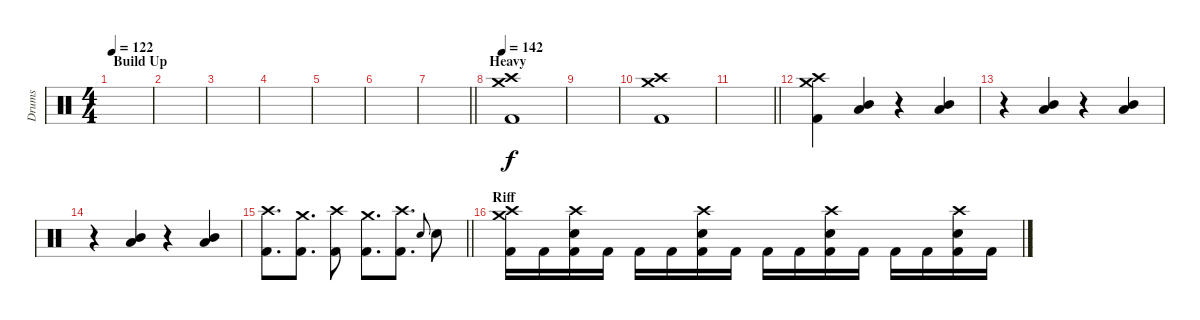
\track ("Drums" "Drums") {instrument percussion}
\staff {score}
\articulation defaults
\ts (4 4)
\section ("" "Build Up")
\tempo 122
\clef neutral
\ks c
|
|
|
|
|
|
\barLineRight lightlight
|
\section ("" "Heavy")
\tempo 142
("Crash high (hit)" "Crash medium (hit)" "Kick (hit) 2").1 |
|
("Crash high (hit)" "Crash medium (hit)" "Kick (hit) 2").1 |
\barLineRight lightlight
|
("Crash high (hit)" "Crash medium (hit)" "Kick (hit) 2").4 ("Mid Tom (hit)" "Low Floor Tom (hit)").4 r.4 ("Mid Tom (hit)" "Low Floor Tom (hit)").4 |
r.4 ("Mid Tom (hit)" "Low Floor Tom (hit)").4 r.4 ("Mid Tom (hit)" "Low Floor Tom (hit)").4 |
r.4 ("Mid Tom (hit)" "Low Floor Tom (hit)").4 r.4 ("Mid Tom (hit)" "Low Floor Tom (hit)").4 |
\barLineRight lightlight
("Crash high (hit)" "Kick (hit) 2").8{d} ("Crash medium (hit)" "Kick (hit) 2").8{d} ("Crash high (hit)" "Kick (hit) 2").8 ("Crash medium (hit)" "Kick (hit) 2").8{d} ("Crash high (hit)" "Kick (hit) 2").8{d} "Electric Snare (hit)".8{gr onbeat} "Electric Snare (hit)".8 |
\section ("" "Riff")
("Crash high (hit)" "Crash medium (hit)" "Kick (hit) 2").16 "Kick (hit) 2".16 ("Crash high (hit)" "Electric Snare (hit)" "Kick (hit) 2").16 "Kick (hit) 2".16 "Kick (hit) 2".16 "Kick (hit) 2".16 ("Crash high (hit)" "Electric Snare (hit)" "Kick (hit) 2").16 "Kick (hit) 2".16 "Kick (hit) 2".16 "Kick (hit) 2".16 ("Crash high (hit)" "Electric Snare (hit)" "Kick (hit) 2").16 "Kick (hit) 2".16 "Kick (hit) 2".16 "Kick (hit) 2".16 ("Crash high (hit)" "Electric Snare (hit)" "Kick (hit) 2").16 "Kick (hit) 2".16
